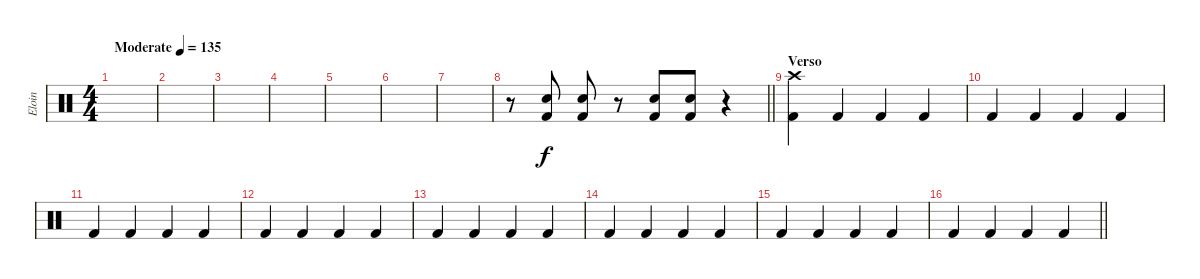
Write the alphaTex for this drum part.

\track ("Eloin" "Eloin") {instrument percussion}
\staff {score}
\articulation defaults
\ts (4 4)
\tempo (135 "Moderate")
\clef neutral
\ks c
|
|
|
|
|
|
|
\barLineRight lightlight
r.8 ("Electric Snare (hit)" "Kick (hit) 2").8 ("Electric Snare (hit)" "Kick (hit) 2").8 r.8 ("Electric Snare (hit)" "Kick (hit) 2").8 ("Electric Snare (hit)" "Kick (hit) 2").8 r.4 |
\section ("" "Verso")
("Crash high (hit)" "Kick (hit) 2").4 "Kick (hit) 2".4 "Kick (hit) 2".4 "Kick (hit) 2".4 |
"Kick (hit) 2".4 "Kick (hit) 2".4 "Kick (hit) 2".4 "Kick (hit) 2".4 |
"Kick (hit) 2".4 "Kick (hit) 2".4 "Kick (hit) 2".4 "Kick (hit) 2".4 |
"Kick (hit) 2".4 "Kick (hit) 2".4 "Kick (hit) 2".4 "Kick (hit) 2".4 |
"Kick (hit) 2".4 "Kick (hit) 2".4 "Kick (hit) 2".4 "Kick (hit) 2".4 |
"Kick (hit) 2".4 "Kick (hit) 2".4 "Kick (hit) 2".4 "Kick (hit) 2".4 |
"Kick (hit) 2".4 "Kick (hit) 2".4 "Kick (hit) 2".4 "Kick (hit) 2".4 |
\barLineRight lightlight "Kick (hit) 2".4 "Kick (hit) 2".4 "Kick (hit) 2".4 "Kick (hit) 2".4
